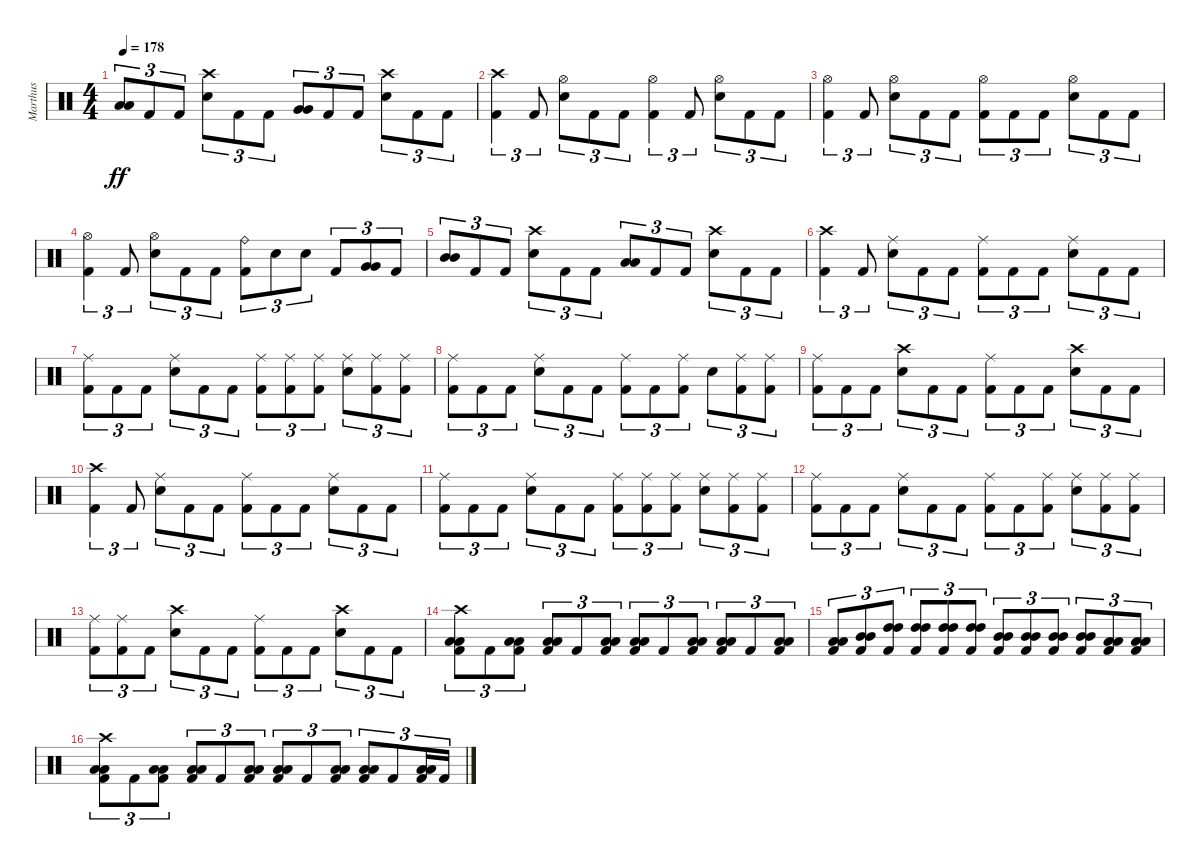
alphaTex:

\track ("Marthus" "Marthus") {instrument percussion}
\staff {score}
\articulation defaults
\ts (4 4)
\tempo 178
\clef neutral
\ks c
("Low Tom (hit)" "Low Tom (hit)").8{tu (3 2) dy ff} "Kick (hit) 2".8{tu (3 2)} "Kick (hit) 2".8{tu (3 2)} ("Crash high (hit)" "Electric Snare (hit)").8{tu (3 2)} "Kick (hit) 2".8{tu (3 2)} "Kick (hit) 2".8{tu (3 2)} ("Very Low Tom (hit)" "Very Low Tom (hit)").8{tu (3 2)} "Kick (hit) 2".8{tu (3 2)} "Kick (hit) 2".8{tu (3 2)} ("Crash high (hit)" "Electric Snare (hit)").8{tu (3 2)} "Kick (hit) 2".8{tu (3 2)} "Kick (hit) 2".8{tu (3 2)} |
("Crash high (hit)" "Kick (hit) 2").4{tu (3 2)} "Kick (hit) 2".8{tu (3 2)} ("Hi-Hat (open)" "Electric Snare (hit)").8{tu (3 2)} "Kick (hit) 2".8{tu (3 2)} "Kick (hit) 2".8{tu (3 2)} ("Hi-Hat (open)" "Kick (hit) 2").4{tu (3 2)} "Kick (hit) 2".8{tu (3 2)} ("Hi-Hat (open)" "Electric Snare (hit)").8{tu (3 2)} "Kick (hit) 2".8{tu (3 2)} "Kick (hit) 2".8{tu (3 2)} |
("Hi-Hat (open)" "Kick (hit) 2").4{tu (3 2)} "Kick (hit) 2".8{tu (3 2)} ("Hi-Hat (open)" "Electric Snare (hit)").8{tu (3 2)} "Kick (hit) 2".8{tu (3 2)} "Kick (hit) 2".8{tu (3 2)} ("Hi-Hat (open)" "Kick (hit) 2").8{tu (3 2)} "Kick (hit) 2".8{tu (3 2)} "Kick (hit) 2".8{tu (3 2)} ("Hi-Hat (open)" "Electric Snare (hit)").8{tu (3 2)} "Kick (hit) 2".8{tu (3 2)} "Kick (hit) 2".8{tu (3 2)} |
("Hi-Hat (open)" "Kick (hit) 2").4{tu (3 2)} "Kick (hit) 2".8{tu (3 2)} ("Hi-Hat (open)" "Electric Snare (hit)").8{tu (3 2)} "Kick (hit) 2".8{tu (3 2)} "Kick (hit) 2".8{tu (3 2)} ("Ride (bell)" "Kick (hit) 2").8{tu (3 2)} "Electric Snare (hit)".8{tu (3 2)} "Electric Snare (hit)".8{tu (3 2)} "Kick (hit) 2".8{tu (3 2)} ("Very Low Tom (hit)" "Very Low Tom (hit)").8{tu (3 2)} "Kick (hit) 2".8{tu (3 2)} |
("Mid Tom (hit)" "Mid Tom (hit)").8{tu (3 2)} "Kick (hit) 2".8{tu (3 2)} "Kick (hit) 2".8{tu (3 2)} ("Crash high (hit)" "Electric Snare (hit)").8{tu (3 2)} "Kick (hit) 2".8{tu (3 2)} "Kick (hit) 2".8{tu (3 2)} ("Low Tom (hit)" "Low Tom (hit)").8{tu (3 2)} "Kick (hit) 2".8{tu (3 2)} "Kick (hit) 2".8{tu (3 2)} ("Crash high (hit)" "Electric Snare (hit)").8{tu (3 2)} "Kick (hit) 2".8{tu (3 2)} "Kick (hit) 2".8{tu (3 2)} |
("Crash high (hit)" "Kick (hit) 2").4{tu (3 2)} "Kick (hit) 2".8{tu (3 2)} ("Ride (middle)" "Electric Snare (hit)").8{tu (3 2)} "Kick (hit) 2".8{tu (3 2)} "Kick (hit) 2".8{tu (3 2)} ("Ride (middle)" "Kick (hit) 2").8{tu (3 2)} "Kick (hit) 2".8{tu (3 2)} "Kick (hit) 2".8{tu (3 2)} ("Ride (middle)" "Electric Snare (hit)").8{tu (3 2)} "Kick (hit) 2".8{tu (3 2)} "Kick (hit) 2".8{tu (3 2)} |
("Ride (middle)" "Kick (hit) 2").8{tu (3 2)} "Kick (hit) 2".8{tu (3 2)} "Kick (hit) 2".8{tu (3 2)} ("Ride (middle)" "Electric Snare (hit)").8{tu (3 2)} "Kick (hit) 2".8{tu (3 2)} "Kick (hit) 2".8{tu (3 2)} ("Ride (middle)" "Kick (hit) 2").8{tu (3 2)} ("Ride (middle)" "Kick (hit) 2").8{tu (3 2)} ("Ride (middle)" "Kick (hit) 2").8{tu (3 2)} ("Ride (middle)" "Electric Snare (hit)").8{tu (3 2)} ("Ride (middle)" "Kick (hit) 2").8{tu (3 2)} ("Ride (middle)" "Kick (hit) 2").8{tu (3 2)} |
("Ride (middle)" "Kick (hit) 2").8{tu (3 2)} "Kick (hit) 2".8{tu (3 2)} "Kick (hit) 2".8{tu (3 2)} ("Ride (middle)" "Electric Snare (hit)").8{tu (3 2)} "Kick (hit) 2".8{tu (3 2)} "Kick (hit) 2".8{tu (3 2)} ("Ride (middle)" "Kick (hit) 2").8{tu (3 2)} "Kick (hit) 2".8{tu (3 2)} ("Ride (middle)" "Kick (hit) 2").8{tu (3 2)} "Electric Snare (hit)".8{tu (3 2)} ("Ride (middle)" "Kick (hit) 2").8{tu (3 2)} ("Ride (middle)" "Kick (hit) 2").8{tu (3 2)} |
("Ride (middle)" "Kick (hit) 2").8{tu (3 2)} "Kick (hit) 2".8{tu (3 2)} "Kick (hit) 2".8{tu (3 2)} ("Crash high (hit)" "Electric Snare (hit)").8{tu (3 2)} "Kick (hit) 2".8{tu (3 2)} "Kick (hit) 2".8{tu (3 2)} ("Ride (middle)" "Kick (hit) 2").8{tu (3 2)} "Kick (hit) 2".8{tu (3 2)} "Kick (hit) 2".8{tu (3 2)} ("Crash high (hit)" "Electric Snare (hit)").8{tu (3 2)} "Kick (hit) 2".8{tu (3 2)} "Kick (hit) 2".8{tu (3 2)} |
("Crash high (hit)" "Kick (hit) 2").4{tu (3 2)} "Kick (hit) 2".8{tu (3 2)} ("Ride (middle)" "Electric Snare (hit)").8{tu (3 2)} "Kick (hit) 2".8{tu (3 2)} "Kick (hit) 2".8{tu (3 2)} ("Ride (middle)" "Kick (hit) 2").8{tu (3 2)} "Kick (hit) 2".8{tu (3 2)} "Kick (hit) 2".8{tu (3 2)} ("Ride (middle)" "Electric Snare (hit)").8{tu (3 2)} "Kick (hit) 2".8{tu (3 2)} "Kick (hit) 2".8{tu (3 2)} |
("Ride (middle)" "Kick (hit) 2").8{tu (3 2)} "Kick (hit) 2".8{tu (3 2)} "Kick (hit) 2".8{tu (3 2)} ("Ride (middle)" "Electric Snare (hit)").8{tu (3 2)} "Kick (hit) 2".8{tu (3 2)} "Kick (hit) 2".8{tu (3 2)} ("Ride (middle)" "Kick (hit) 2").8{tu (3 2)} ("Ride (middle)" "Kick (hit) 2").8{tu (3 2)} ("Ride (middle)" "Kick (hit) 2").8{tu (3 2)} ("Ride (middle)" "Electric Snare (hit)").8{tu (3 2)} ("Ride (middle)" "Kick (hit) 2").8{tu (3 2)} ("Ride (middle)" "Kick (hit) 2").8{tu (3 2)} |
("Ride (middle)" "Kick (hit) 2").8{tu (3 2)} "Kick (hit) 2".8{tu (3 2)} "Kick (hit) 2".8{tu (3 2)} ("Ride (middle)" "Electric Snare (hit)").8{tu (3 2)} "Kick (hit) 2".8{tu (3 2)} "Kick (hit) 2".8{tu (3 2)} ("Ride (middle)" "Kick (hit) 2").8{tu (3 2)} "Kick (hit) 2".8{tu (3 2)} ("Ride (middle)" "Kick (hit) 2").8{tu (3 2)} ("Ride (middle)" "Electric Snare (hit)").8{tu (3 2)} ("Ride (middle)" "Kick (hit) 2").8{tu (3 2)} ("Ride (middle)" "Kick (hit) 2").8{tu (3 2)} |
("Ride (middle)" "Kick (hit) 2").8{tu (3 2)} ("Ride (middle)" "Kick (hit) 2").8{tu (3 2)} "Kick (hit) 2".8{tu (3 2)} ("Crash high (hit)" "Electric Snare (hit)").8{tu (3 2)} "Kick (hit) 2".8{tu (3 2)} "Kick (hit) 2".8{tu (3 2)} ("Ride (middle)" "Kick (hit) 2").8{tu (3 2)} "Kick (hit) 2".8{tu (3 2)} "Kick (hit) 2".8{tu (3 2)} ("Crash high (hit)" "Electric Snare (hit)").8{tu (3 2)} "Kick (hit) 2".8{tu (3 2)} "Kick (hit) 2".8{tu (3 2)} |
("Crash high (hit)" "Low Tom (hit)" "Low Tom (hit)" "Kick (hit) 2").8{tu (3 2)} "Kick (hit) 2".8{tu (3 2)} ("Low Floor Tom (hit)" "Low Floor Tom (hit)" "Kick (hit) 2").8{tu (3 2)} ("Low Floor Tom (hit)" "Low Floor Tom (hit)" "Kick (hit) 2").8{tu (3 2)} "Kick (hit) 2".8{tu (3 2)} ("Low Tom (hit)" "Low Tom (hit)" "Kick (hit) 2").8{tu (3 2)} ("Low Tom (hit)" "Low Tom (hit)" "Kick (hit) 2").8{tu (3 2)} "Kick (hit) 2".8{tu (3 2)} ("Low Floor Tom (hit)" "Low Floor Tom (hit)" "Kick (hit) 2").8{tu (3 2)} ("Low Floor Tom (hit)" "Low Floor Tom (hit)" "Kick (hit) 2").8{tu (3 2)} "Kick (hit) 2".8{tu (3 2)} ("Low Tom (hit)" "Low Tom (hit)" "Kick (hit) 2").8{tu (3 2)} |
("Low Tom (hit)" "Low Tom (hit)" "Kick (hit) 2").8{tu (3 2)} ("Mid Tom (hit)" "Mid Tom (hit)" "Kick (hit) 2").8{tu (3 2)} ("High Tom (hit)" "High Tom (hit)" "Kick (hit) 2").8{tu (3 2)} ("High Tom (hit)" "High Tom (hit)" "Kick (hit) 2").8{tu (3 2)} ("High Tom (hit)" "High Tom (hit)" "Kick (hit) 2").8{tu (3 2)} ("High Tom (hit)" "High Tom (hit)" "Kick (hit) 2").8{tu (3 2)} ("Mid Tom (hit)" "Mid Tom (hit)" "Kick (hit) 2").8{tu (3 2)} ("Mid Tom (hit)" "Mid Tom (hit)" "Kick (hit) 2").8{tu (3 2)} ("Mid Tom (hit)" "Mid Tom (hit)" "Kick (hit) 2").8{tu (3 2)} ("Mid Tom (hit)" "Mid Tom (hit)" "Kick (hit) 2").8{tu (3 2)} ("Low Tom (hit)" "Low Tom (hit)" "Kick (hit) 2").8{tu (3 2)} ("Low Tom (hit)" "Low Tom (hit)" "Kick (hit) 2").8{tu (3 2)} |
("Crash high (hit)" "Low Tom (hit)" "Low Tom (hit)" "Kick (hit) 2").8{tu (3 2)} "Kick (hit) 2".8{tu (3 2)} ("Low Floor Tom (hit)" "Low Floor Tom (hit)" "Kick (hit) 2").8{tu (3 2)} ("Low Floor Tom (hit)" "Low Floor Tom (hit)" "Kick (hit) 2").8{tu (3 2)} "Kick (hit) 2".8{tu (3 2)} ("Low Tom (hit)" "Low Tom (hit)" "Kick (hit) 2").8{tu (3 2)} ("Low Tom (hit)" "Low Tom (hit)" "Kick (hit) 2").8{tu (3 2)} "Kick (hit) 2".8{tu (3 2)} ("Low Floor Tom (hit)" "Low Floor Tom (hit)" "Kick (hit) 2").8{tu (3 2)} ("Low Floor Tom (hit)" "Low Floor Tom (hit)" "Kick (hit) 2").8{tu (3 2)} "Kick (hit) 2".8{tu (3 2)} ("Low Tom (hit)" "Low Tom (hit)" "Kick (hit) 2").16{tu (3 2)} "Kick (hit) 2".16{tu (3 2)}
